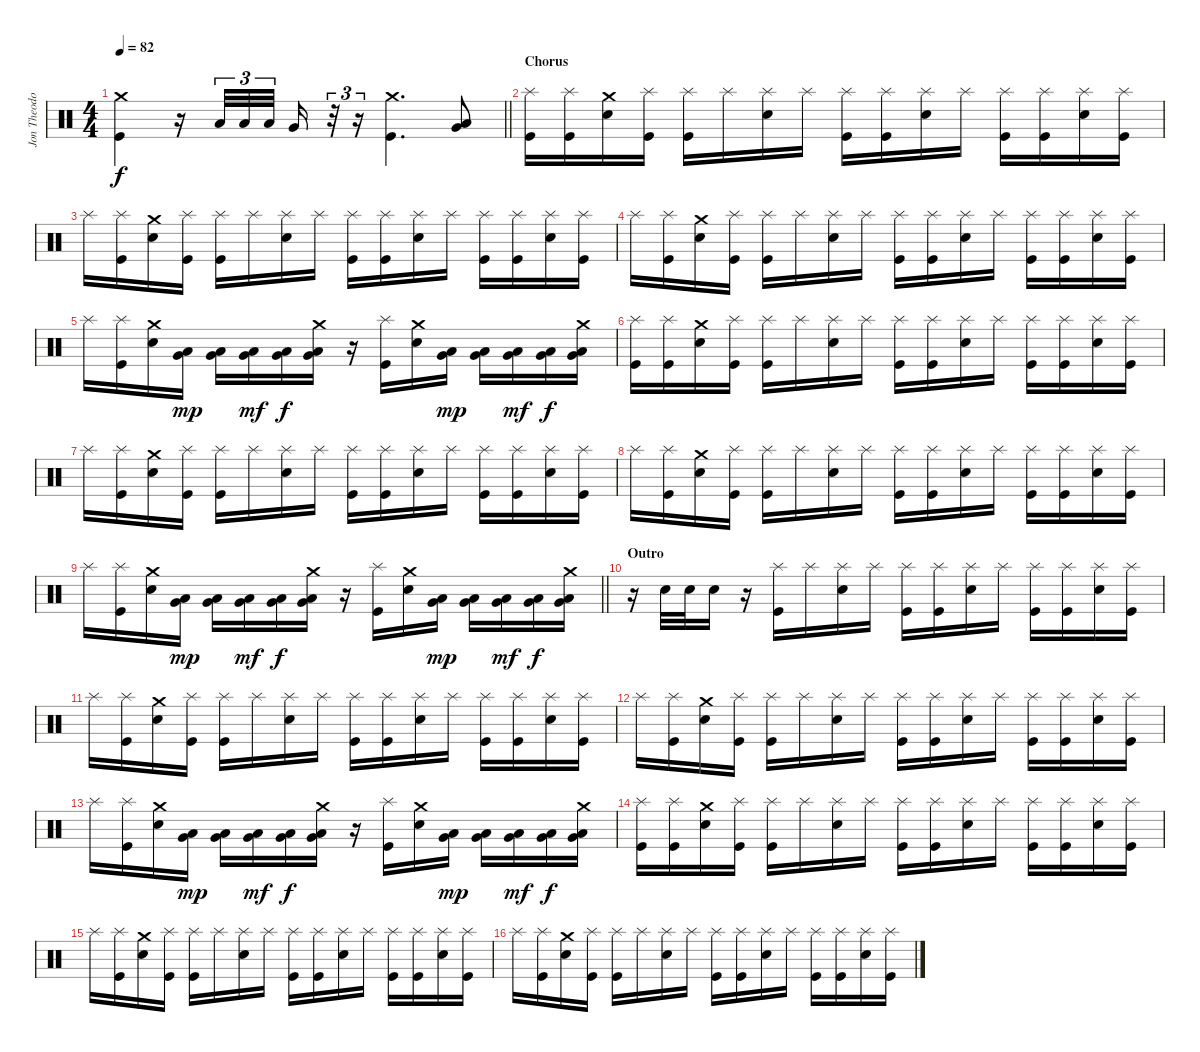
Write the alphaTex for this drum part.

\track ("Jon Theodore - Drums" "Jon Theodo") {instrument percussion}
\staff {score}
\articulation defaults
\ts (4 4)
\tempo 82
\clef neutral
\barLineRight lightlight
\ks c
("Crash medium (hit)" "Kick (hit)").4{dy f} r.16 "Low Tom (hit)".32{tu (3 2)} "Low Tom (hit)".32{tu (3 2)} "Low Tom (hit)".32{tu (3 2) beam splitsecondary} "Very Low Tom (hit)".16 r.32{tu (3 2)} r.16{tu (3 2)} ("Crash medium (hit)" "Kick (hit)").4{d} ("Low Tom (hit)" "Very Low Tom (hit)").8{bd 60} |
\section ("" "Chorus")
("Splash (hit)" "Kick (hit)").16 ("Splash (hit)" "Kick (hit)").16 ("Crash medium (hit)" "Snare (hit) 2").16 ("Splash (hit)" "Kick (hit)").16 ("Splash (hit)" "Kick (hit)").16 "Splash (hit)".16 ("Splash (hit)" "Snare (hit) 2").16 "Splash (hit)".16 ("Splash (hit)" "Kick (hit)").16 ("Splash (hit)" "Kick (hit)").16 ("Splash (hit)" "Snare (hit) 2").16 "Splash (hit)".16 ("Splash (hit)" "Kick (hit)").16 ("Splash (hit)" "Kick (hit)").16 ("Splash (hit)" "Snare (hit) 2").16 ("Splash (hit)" "Kick (hit)").16 |
"Splash (hit)".16 ("Splash (hit)" "Kick (hit)").16 ("Crash medium (hit)" "Snare (hit) 2").16 ("Splash (hit)" "Kick (hit)").16 ("Splash (hit)" "Kick (hit)").16 "Splash (hit)".16 ("Splash (hit)" "Snare (hit) 2").16 "Splash (hit)".16 ("Splash (hit)" "Kick (hit)").16 ("Splash (hit)" "Kick (hit)").16 ("Splash (hit)" "Snare (hit) 2").16 "Splash (hit)".16 ("Splash (hit)" "Kick (hit)").16 ("Splash (hit)" "Kick (hit)").16 ("Splash (hit)" "Snare (hit) 2").16 ("Splash (hit)" "Kick (hit)").16 |
"Splash (hit)".16 ("Splash (hit)" "Kick (hit)").16 ("Crash medium (hit)" "Snare (hit) 2").16 ("Splash (hit)" "Kick (hit)").16 ("Splash (hit)" "Kick (hit)").16 "Splash (hit)".16 ("Splash (hit)" "Snare (hit) 2").16 "Splash (hit)".16 ("Splash (hit)" "Kick (hit)").16 ("Splash (hit)" "Kick (hit)").16 ("Splash (hit)" "Snare (hit) 2").16 "Splash (hit)".16 ("Splash (hit)" "Kick (hit)").16 ("Splash (hit)" "Kick (hit)").16 ("Splash (hit)" "Snare (hit) 2").16 ("Splash (hit)" "Kick (hit)").16 |
"Splash (hit)".16 ("Splash (hit)" "Kick (hit)").16 ("Crash medium (hit)" "Snare (hit) 2").16 ("Low Tom (hit)" "Very Low Tom (hit)").16{dy mp} ("Low Tom (hit)" "Very Low Tom (hit)").16 ("Low Tom (hit)" "Very Low Tom (hit)").16{dy mf} ("Low Tom (hit)" "Very Low Tom (hit)").16{dy f} ("Crash medium (hit)" "Low Tom (hit)" "Very Low Tom (hit)").16 r.16 ("Splash (hit)" "Kick (hit)").16 ("Crash medium (hit)" "Snare (hit) 2").16 ("Low Tom (hit)" "Very Low Tom (hit)").16{dy mp} ("Low Tom (hit)" "Very Low Tom (hit)").16 ("Low Tom (hit)" "Very Low Tom (hit)").16{dy mf} ("Low Tom (hit)" "Very Low Tom (hit)").16{dy f} ("Crash medium (hit)" "Low Tom (hit)" "Very Low Tom (hit)").16 |
("Splash (hit)" "Kick (hit)").16 ("Splash (hit)" "Kick (hit)").16 ("Crash medium (hit)" "Snare (hit) 2").16 ("Splash (hit)" "Kick (hit)").16 ("Splash (hit)" "Kick (hit)").16 "Splash (hit)".16 ("Splash (hit)" "Snare (hit) 2").16 "Splash (hit)".16 ("Splash (hit)" "Kick (hit)").16 ("Splash (hit)" "Kick (hit)").16 ("Splash (hit)" "Snare (hit) 2").16 "Splash (hit)".16 ("Splash (hit)" "Kick (hit)").16 ("Splash (hit)" "Kick (hit)").16 ("Splash (hit)" "Snare (hit) 2").16 ("Splash (hit)" "Kick (hit)").16 |
"Splash (hit)".16 ("Splash (hit)" "Kick (hit)").16 ("Crash medium (hit)" "Snare (hit) 2").16 ("Splash (hit)" "Kick (hit)").16 ("Splash (hit)" "Kick (hit)").16 "Splash (hit)".16 ("Splash (hit)" "Snare (hit) 2").16 "Splash (hit)".16 ("Splash (hit)" "Kick (hit)").16 ("Splash (hit)" "Kick (hit)").16 ("Splash (hit)" "Snare (hit) 2").16 "Splash (hit)".16 ("Splash (hit)" "Kick (hit)").16 ("Splash (hit)" "Kick (hit)").16 ("Splash (hit)" "Snare (hit) 2").16 ("Splash (hit)" "Kick (hit)").16 |
"Splash (hit)".16 ("Splash (hit)" "Kick (hit)").16 ("Crash medium (hit)" "Snare (hit) 2").16 ("Splash (hit)" "Kick (hit)").16 ("Splash (hit)" "Kick (hit)").16 "Splash (hit)".16 ("Splash (hit)" "Snare (hit) 2").16 "Splash (hit)".16 ("Splash (hit)" "Kick (hit)").16 ("Splash (hit)" "Kick (hit)").16 ("Splash (hit)" "Snare (hit) 2").16 "Splash (hit)".16 ("Splash (hit)" "Kick (hit)").16 ("Splash (hit)" "Kick (hit)").16 ("Splash (hit)" "Snare (hit) 2").16 ("Splash (hit)" "Kick (hit)").16 |
\barLineRight lightlight "Splash (hit)".16
("Splash (hit)" "Kick (hit)").16 ("Crash medium (hit)" "Snare (hit) 2").16 ("Low Tom (hit)" "Very Low Tom (hit)").16{dy mp} ("Low Tom (hit)" "Very Low Tom (hit)").16 ("Low Tom (hit)" "Very Low Tom (hit)").16{dy mf} ("Low Tom (hit)" "Very Low Tom (hit)").16{dy f} ("Crash medium (hit)" "Low Tom (hit)" "Very Low Tom (hit)").16 r.16 ("Splash (hit)" "Kick (hit)").16 ("Crash medium (hit)" "Snare (hit) 2").16 ("Low Tom (hit)" "Very Low Tom (hit)").16{dy mp} ("Low Tom (hit)" "Very Low Tom (hit)").16 ("Low Tom (hit)" "Very Low Tom (hit)").16{dy mf} ("Low Tom (hit)" "Very Low Tom (hit)").16{dy f} ("Crash medium (hit)" "Low Tom (hit)" "Very Low Tom (hit)").16 |
\section ("" "Outro")
r.16 "Snare (hit) 2".32 "Snare (hit) 2".32 "Snare (hit) 2".16 r.16 ("Splash (hit)" "Kick (hit)").16 "Splash (hit)".16 ("Splash (hit)" "Snare (hit) 2").16 "Splash (hit)".16 ("Splash (hit)" "Kick (hit)").16 ("Splash (hit)" "Kick (hit)").16 ("Splash (hit)" "Snare (hit) 2").16 "Splash (hit)".16 ("Splash (hit)" "Kick (hit)").16 ("Splash (hit)" "Kick (hit)").16 ("Splash (hit)" "Snare (hit) 2").16 ("Splash (hit)" "Kick (hit)").16 |
"Splash (hit)".16 ("Splash (hit)" "Kick (hit)").16 ("Crash medium (hit)" "Snare (hit) 2").16 ("Splash (hit)" "Kick (hit)").16 ("Splash (hit)" "Kick (hit)").16 "Splash (hit)".16 ("Splash (hit)" "Snare (hit) 2").16 "Splash (hit)".16 ("Splash (hit)" "Kick (hit)").16 ("Splash (hit)" "Kick (hit)").16 ("Splash (hit)" "Snare (hit) 2").16 "Splash (hit)".16 ("Splash (hit)" "Kick (hit)").16 ("Splash (hit)" "Kick (hit)").16 ("Splash (hit)" "Snare (hit) 2").16 ("Splash (hit)" "Kick (hit)").16 |
"Splash (hit)".16 ("Splash (hit)" "Kick (hit)").16 ("Crash medium (hit)" "Snare (hit) 2").16 ("Splash (hit)" "Kick (hit)").16 ("Splash (hit)" "Kick (hit)").16 "Splash (hit)".16 ("Splash (hit)" "Snare (hit) 2").16 "Splash (hit)".16 ("Splash (hit)" "Kick (hit)").16 ("Splash (hit)" "Kick (hit)").16 ("Splash (hit)" "Snare (hit) 2").16 "Splash (hit)".16 ("Splash (hit)" "Kick (hit)").16 ("Splash (hit)" "Kick (hit)").16 ("Splash (hit)" "Snare (hit) 2").16 ("Splash (hit)" "Kick (hit)").16 |
"Splash (hit)".16 ("Splash (hit)" "Kick (hit)").16 ("Crash medium (hit)" "Snare (hit) 2").16 ("Low Tom (hit)" "Very Low Tom (hit)").16{dy mp} ("Low Tom (hit)" "Very Low Tom (hit)").16 ("Low Tom (hit)" "Very Low Tom (hit)").16{dy mf} ("Low Tom (hit)" "Very Low Tom (hit)").16{dy f} ("Crash medium (hit)" "Low Tom (hit)" "Very Low Tom (hit)").16 r.16 ("Splash (hit)" "Kick (hit)").16 ("Crash medium (hit)" "Snare (hit) 2").16 ("Low Tom (hit)" "Very Low Tom (hit)").16{dy mp} ("Low Tom (hit)" "Very Low Tom (hit)").16 ("Low Tom (hit)" "Very Low Tom (hit)").16{dy mf} ("Low Tom (hit)" "Very Low Tom (hit)").16{dy f} ("Crash medium (hit)" "Low Tom (hit)" "Very Low Tom (hit)").16 |
("Splash (hit)" "Kick (hit)").16 ("Splash (hit)" "Kick (hit)").16 ("Crash medium (hit)" "Snare (hit) 2").16 ("Splash (hit)" "Kick (hit)").16 ("Splash (hit)" "Kick (hit)").16 "Splash (hit)".16 ("Splash (hit)" "Snare (hit) 2").16 "Splash (hit)".16 ("Splash (hit)" "Kick (hit)").16 ("Splash (hit)" "Kick (hit)").16 ("Splash (hit)" "Snare (hit) 2").16 "Splash (hit)".16 ("Splash (hit)" "Kick (hit)").16 ("Splash (hit)" "Kick (hit)").16 ("Splash (hit)" "Snare (hit) 2").16 ("Splash (hit)" "Kick (hit)").16 |
"Splash (hit)".16 ("Splash (hit)" "Kick (hit)").16 ("Crash medium (hit)" "Snare (hit) 2").16 ("Splash (hit)" "Kick (hit)").16 ("Splash (hit)" "Kick (hit)").16 "Splash (hit)".16 ("Splash (hit)" "Snare (hit) 2").16 "Splash (hit)".16 ("Splash (hit)" "Kick (hit)").16 ("Splash (hit)" "Kick (hit)").16 ("Splash (hit)" "Snare (hit) 2").16 "Splash (hit)".16 ("Splash (hit)" "Kick (hit)").16 ("Splash (hit)" "Kick (hit)").16 ("Splash (hit)" "Snare (hit) 2").16 ("Splash (hit)" "Kick (hit)").16 |
"Splash (hit)".16 ("Splash (hit)" "Kick (hit)").16 ("Crash medium (hit)" "Snare (hit) 2").16 ("Splash (hit)" "Kick (hit)").16 ("Splash (hit)" "Kick (hit)").16 "Splash (hit)".16 ("Splash (hit)" "Snare (hit) 2").16 "Splash (hit)".16 ("Splash (hit)" "Kick (hit)").16 ("Splash (hit)" "Kick (hit)").16 ("Splash (hit)" "Snare (hit) 2").16 "Splash (hit)".16 ("Splash (hit)" "Kick (hit)").16 ("Splash (hit)" "Kick (hit)").16 ("Splash (hit)" "Snare (hit) 2").16 ("Splash (hit)" "Kick (hit)").16
